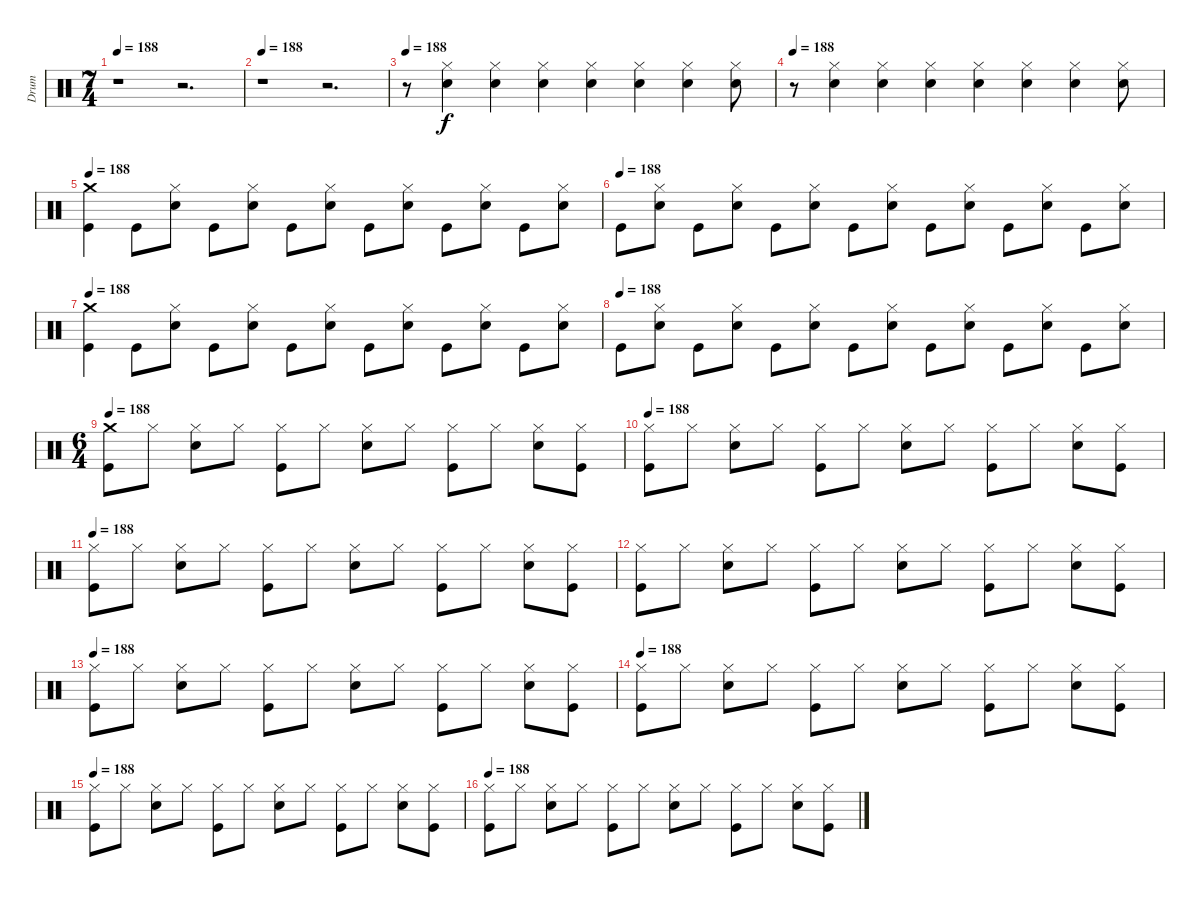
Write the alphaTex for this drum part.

\track ("Drum" "Drum") {instrument percussion}
\staff {score}
\articulation defaults
\ts (7 4)
\tempo 188
\clef neutral
\ks c
r.1{dy f} r.2{d} |
\tempo 188
r.1 r.2{d} |
\tempo 188
r.8 ("Hi-Hat (closed)" "Snare (hit) 2").4 ("Hi-Hat (closed)" "Snare (hit) 2").4 ("Hi-Hat (closed)" "Snare (hit) 2").4 ("Hi-Hat (closed)" "Snare (hit) 2").4 ("Hi-Hat (closed)" "Snare (hit) 2").4 ("Hi-Hat (closed)" "Snare (hit) 2").4 ("Hi-Hat (closed)" "Snare (hit) 2").8 |
\tempo 188
r.8 ("Hi-Hat (closed)" "Snare (hit) 2").4 ("Hi-Hat (closed)" "Snare (hit) 2").4 ("Hi-Hat (closed)" "Snare (hit) 2").4 ("Hi-Hat (closed)" "Snare (hit) 2").4 ("Hi-Hat (closed)" "Snare (hit) 2").4 ("Hi-Hat (closed)" "Snare (hit) 2").4 ("Hi-Hat (closed)" "Snare (hit) 2").8 |
\tempo 188
("Crash medium (hit)" "Kick (hit)").4 "Kick (hit)".8 ("Hi-Hat (closed)" "Snare (hit) 2").8 "Kick (hit)".8 ("Hi-Hat (closed)" "Snare (hit) 2").8 "Kick (hit)".8 ("Hi-Hat (closed)" "Snare (hit) 2").8 "Kick (hit)".8 ("Hi-Hat (closed)" "Snare (hit) 2").8 "Kick (hit)".8 ("Hi-Hat (closed)" "Snare (hit) 2").8 "Kick (hit)".8 ("Hi-Hat (closed)" "Snare (hit) 2").8 |
\tempo (188)
"Kick (hit)".8 ("Hi-Hat (closed)" "Snare (hit) 2").8 "Kick (hit)".8 ("Hi-Hat (closed)" "Snare (hit) 2").8 "Kick (hit)".8 ("Hi-Hat (closed)" "Snare (hit) 2").8 "Kick (hit)".8 ("Hi-Hat (closed)" "Snare (hit) 2").8 "Kick (hit)".8 ("Hi-Hat (closed)" "Snare (hit) 2").8 "Kick (hit)".8 ("Hi-Hat (closed)" "Snare (hit) 2").8 "Kick (hit)".8 ("Hi-Hat (closed)" "Snare (hit) 2").8 |
\tempo 188
("Crash medium (hit)" "Kick (hit)").4 "Kick (hit)".8 ("Hi-Hat (closed)" "Snare (hit) 2").8 "Kick (hit)".8 ("Hi-Hat (closed)" "Snare (hit) 2").8 "Kick (hit)".8 ("Hi-Hat (closed)" "Snare (hit) 2").8 "Kick (hit)".8 ("Hi-Hat (closed)" "Snare (hit) 2").8 "Kick (hit)".8 ("Hi-Hat (closed)" "Snare (hit) 2").8 "Kick (hit)".8 ("Hi-Hat (closed)" "Snare (hit) 2").8 |
\tempo (188)
"Kick (hit)".8 ("Hi-Hat (closed)" "Snare (hit) 2").8 "Kick (hit)".8 ("Hi-Hat (closed)" "Snare (hit) 2").8 "Kick (hit)".8 ("Hi-Hat (closed)" "Snare (hit) 2").8 "Kick (hit)".8 ("Hi-Hat (closed)" "Snare (hit) 2").8 "Kick (hit)".8 ("Hi-Hat (closed)" "Snare (hit) 2").8 "Kick (hit)".8 ("Hi-Hat (closed)" "Snare (hit) 2").8 "Kick (hit)".8 ("Hi-Hat (closed)" "Snare (hit) 2").8 |
\ts (6 4)
\tempo 188
("Crash medium (hit)" "Kick (hit)").8 "Hi-Hat (closed)".8 ("Hi-Hat (closed)" "Snare (hit) 2").8 "Hi-Hat (closed)".8 ("Hi-Hat (closed)" "Kick (hit)").8 "Hi-Hat (closed)".8 ("Hi-Hat (closed)" "Snare (hit) 2").8 "Hi-Hat (closed)".8 ("Hi-Hat (closed)" "Kick (hit)").8 "Hi-Hat (closed)".8 ("Hi-Hat (closed)" "Snare (hit) 2").8 ("Hi-Hat (closed)" "Kick (hit)").8 |
\tempo 188
("Hi-Hat (closed)" "Kick (hit)").8 "Hi-Hat (closed)".8 ("Hi-Hat (closed)" "Snare (hit) 2").8 "Hi-Hat (closed)".8 ("Hi-Hat (closed)" "Kick (hit)").8 "Hi-Hat (closed)".8 ("Hi-Hat (closed)" "Snare (hit) 2").8 "Hi-Hat (closed)".8 ("Hi-Hat (closed)" "Kick (hit)").8 "Hi-Hat (closed)".8 ("Hi-Hat (closed)" "Snare (hit) 2").8 ("Hi-Hat (closed)" "Kick (hit)").8 |
\tempo 188
("Hi-Hat (closed)" "Kick (hit)").8 "Hi-Hat (closed)".8 ("Hi-Hat (closed)" "Snare (hit) 2").8 "Hi-Hat (closed)".8 ("Hi-Hat (closed)" "Kick (hit)").8 "Hi-Hat (closed)".8 ("Hi-Hat (closed)" "Snare (hit) 2").8 "Hi-Hat (closed)".8 ("Hi-Hat (closed)" "Kick (hit)").8 "Hi-Hat (closed)".8 ("Hi-Hat (closed)" "Snare (hit) 2").8 ("Hi-Hat (closed)" "Kick (hit)").8 |
("Hi-Hat (closed)" "Kick (hit)").8 "Hi-Hat (closed)".8 ("Hi-Hat (closed)" "Snare (hit) 2").8 "Hi-Hat (closed)".8 ("Hi-Hat (closed)" "Kick (hit)").8 "Hi-Hat (closed)".8 ("Hi-Hat (closed)" "Snare (hit) 2").8 "Hi-Hat (closed)".8 ("Hi-Hat (closed)" "Kick (hit)").8 "Hi-Hat (closed)".8 ("Hi-Hat (closed)" "Snare (hit) 2").8 ("Hi-Hat (closed)" "Kick (hit)").8 |
\tempo 188
("Hi-Hat (closed)" "Kick (hit)").8 "Hi-Hat (closed)".8 ("Hi-Hat (closed)" "Snare (hit) 2").8 "Hi-Hat (closed)".8 ("Hi-Hat (closed)" "Kick (hit)").8 "Hi-Hat (closed)".8 ("Hi-Hat (closed)" "Snare (hit) 2").8 "Hi-Hat (closed)".8 ("Hi-Hat (closed)" "Kick (hit)").8 "Hi-Hat (closed)".8 ("Hi-Hat (closed)" "Snare (hit) 2").8 ("Hi-Hat (closed)" "Kick (hit)").8 |
\tempo 188
("Hi-Hat (closed)" "Kick (hit)").8 "Hi-Hat (closed)".8 ("Hi-Hat (closed)" "Snare (hit) 2").8 "Hi-Hat (closed)".8 ("Hi-Hat (closed)" "Kick (hit)").8 "Hi-Hat (closed)".8 ("Hi-Hat (closed)" "Snare (hit) 2").8 "Hi-Hat (closed)".8 ("Hi-Hat (closed)" "Kick (hit)").8 "Hi-Hat (closed)".8 ("Hi-Hat (closed)" "Snare (hit) 2").8 ("Hi-Hat (closed)" "Kick (hit)").8 |
\tempo 188
("Hi-Hat (closed)" "Kick (hit)").8 "Hi-Hat (closed)".8 ("Hi-Hat (closed)" "Snare (hit) 2").8 "Hi-Hat (closed)".8 ("Hi-Hat (closed)" "Kick (hit)").8 "Hi-Hat (closed)".8 ("Hi-Hat (closed)" "Snare (hit) 2").8 "Hi-Hat (closed)".8 ("Hi-Hat (closed)" "Kick (hit)").8 "Hi-Hat (closed)".8 ("Hi-Hat (closed)" "Snare (hit) 2").8 ("Hi-Hat (closed)" "Kick (hit)").8 |
\tempo 188
("Hi-Hat (closed)" "Kick (hit)").8 "Hi-Hat (closed)".8 ("Hi-Hat (closed)" "Snare (hit) 2").8 "Hi-Hat (closed)".8 ("Hi-Hat (closed)" "Kick (hit)").8 "Hi-Hat (closed)".8 ("Hi-Hat (closed)" "Snare (hit) 2").8 "Hi-Hat (closed)".8 ("Hi-Hat (closed)" "Kick (hit)").8 "Hi-Hat (closed)".8 ("Hi-Hat (closed)" "Snare (hit) 2").8 ("Hi-Hat (closed)" "Kick (hit)").8
